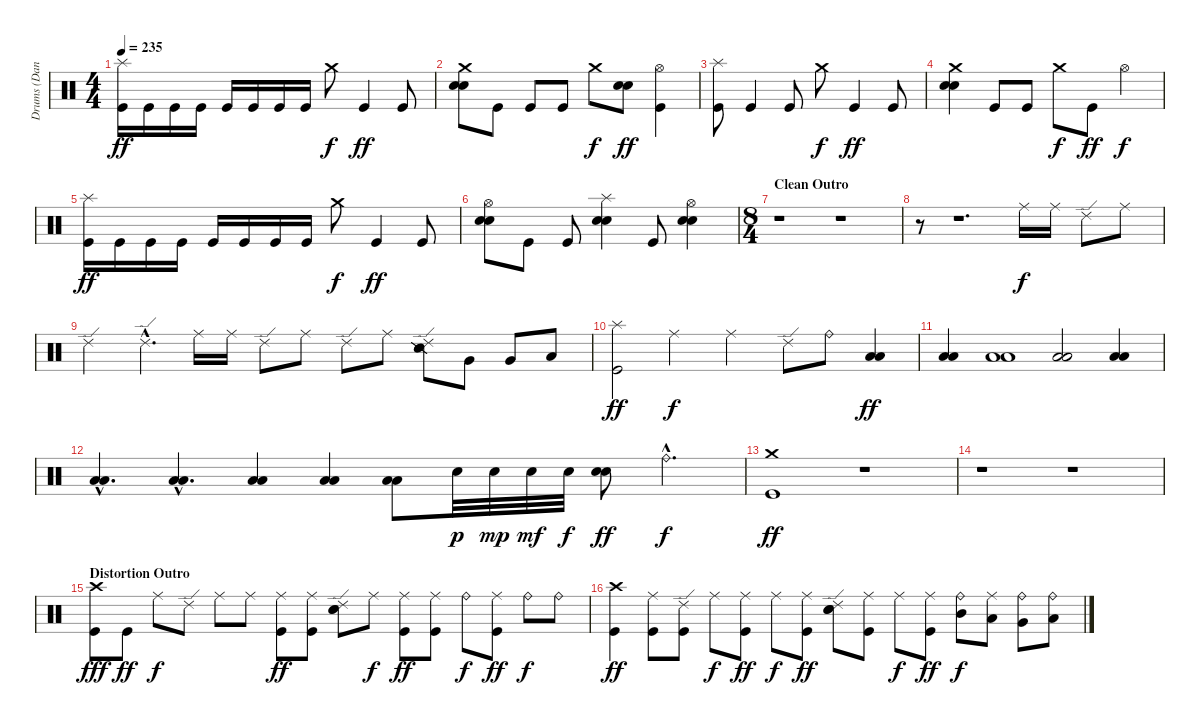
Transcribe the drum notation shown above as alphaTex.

\track ("Drums (Dan)" "Drums (Dan") {instrument percussion}
\staff {score}
\articulation defaults
\ts (4 4)
\tempo 235
\clef neutral
\ks c
("Kick (hit)" "Splash (hit)").16{dy ff} "Kick (hit)".16 "Kick (hit)".16 "Kick (hit)".16 "Kick (hit)".16 "Kick (hit)".16 "Kick (hit)".16 "Kick (hit)".16 "Crash medium (hit)".8{dy f} "Kick (hit)".4{dy ff} "Kick (hit)".8 |
("Electric Snare (hit)" "Electric Snare (hit)" "Crash medium (hit)").8 "Kick (hit)".8 "Kick (hit)".8 "Kick (hit)".8 "Crash medium (hit)".8{dy f} ("Electric Snare (hit)" "Electric Snare (hit)").8{dy ff} ("Kick (hit)" "Hi-Hat (open)").4 |
("Kick (hit)" "Splash (hit)").8 "Kick (hit)".4 "Kick (hit)".8 "Crash medium (hit)".8{dy f} "Kick (hit)".4{dy ff} "Kick (hit)".8 |
("Electric Snare (hit)" "Electric Snare (hit)" "Crash medium (hit)").4 "Kick (hit)".8 "Kick (hit)".8 "Crash medium (hit)".8{dy f} "Kick (hit)".8{dy ff} "Hi-Hat (open)".4{dy f} |
("Kick (hit)" "Splash (hit)").16{dy ff} "Kick (hit)".16 "Kick (hit)".16 "Kick (hit)".16 "Kick (hit)".16 "Kick (hit)".16 "Kick (hit)".16 "Kick (hit)".16 "Crash medium (hit)".8{dy f} "Kick (hit)".4{dy ff} "Kick (hit)".8 |
("Electric Snare (hit)" "Electric Snare (hit)" "Hi-Hat (open)").8 "Kick (hit)".8 "Kick (hit)".8 ("Electric Snare (hit)" "Electric Snare (hit)" "Splash (hit)").4 "Kick (hit)".8 ("Electric Snare (hit)" "Electric Snare (hit)" "Hi-Hat (open)").4 |
\ts (8 4)
\section ("" "Clean Outro")
r.1 r.1 |
r.8 r.1{d} "Ride (middle)".16{dy f} "Ride (middle)".16 "Ride (edge) 2".8 "Ride (middle)".8 |
"Ride (edge) 2".2 "Ride (edge) 2"{hac}.4{d} "Ride (middle)".16 "Ride (middle)".16 "Ride (edge) 2".8 "Ride (middle)".8 "Ride (edge) 2".8 "Ride (middle)".8 ("Snare (side stick) 2" "Snare (side stick) 2" "Ride (edge) 2").8 "Very Low Tom (hit)".8 "Very Low Tom (hit)".8 "Low Floor Tom (hit)".8 |
("Kick (hit)" "Splash (hit)").2{dy ff} "Ride (middle)".2{dy f} "Ride (middle)".2 "Ride (edge) 2".8 "Ride (bell)".8 ("Low Floor Tom (hit)" "Low Floor Tom (hit)").4{dy ff} |
("Low Floor Tom (hit)" "Low Floor Tom (hit)").4 ("Low Floor Tom (hit)" "Low Floor Tom (hit)").1 ("Low Floor Tom (hit)" "Low Floor Tom (hit)").2 ("Low Floor Tom (hit)" "Low Floor Tom (hit)").4 |
("Low Floor Tom (hit)"{hac} "Low Floor Tom (hit)"{hac}).4{d} ("Low Floor Tom (hit)"{hac} "Low Floor Tom (hit)"{hac}).4{d} ("Low Floor Tom (hit)" "Low Floor Tom (hit)").4 ("Low Floor Tom (hit)" "Low Floor Tom (hit)").4 ("Low Floor Tom (hit)" "Low Floor Tom (hit)").8 "Electric Snare (hit)".32{dy p} "Electric Snare (hit)".32{dy mp} "Electric Snare (hit)".32{dy mf} "Electric Snare (hit)".32{dy f} ("Electric Snare (hit)" "Electric Snare (hit)").8{dy ff} "Ride (bell)"{hac}.4{d dy f} |
("Kick (hit)" "Crash medium (hit)").1{dy ff} r.1 |
r.1 r.1 |
\section ("" "Distortion Outro")
("Kick (hit)" "Crash high (hit)").8{dy fff} "Kick (hit)".8{dy ff} "Ride (middle)".8{dy f} "Ride (edge) 2".8 "Ride (middle)".8 "Ride (middle)".8 ("Kick (hit)" "Ride (middle)").8{dy ff} ("Kick (hit)" "Ride (middle)").8 ("Electric Snare (hit)" "Electric Snare (hit)" "Ride (edge) 2").8 "Ride (middle)".8{dy f} ("Kick (hit)" "Ride (middle)").8{dy ff} ("Kick (hit)" "Ride (middle)").8 "Ride (bell)".8{dy f} ("Kick (hit)" "Ride (middle)").8{dy ff} "Ride (bell)".8{dy f} "Ride (bell)".8 |
("Kick (hit)" "Crash high (hit)").4{dy ff} ("Kick (hit)" "Ride (middle)").8 ("Kick (hit)" "Ride (edge) 2").8 "Ride (middle)".8{dy f} ("Kick (hit)" "Ride (middle)").8{dy ff} "Ride (middle)".8{dy f} ("Kick (hit)" "Ride (middle)").8{dy ff} ("Electric Snare (hit)" "Electric Snare (hit)" "Ride (edge) 2").8 ("Kick (hit)" "Ride (middle)").8 "Ride (middle)".8{dy f} ("Kick (hit)" "Ride (middle)").8{dy ff} ("Mid Tom (hit)" "Ride (bell)").8{dy f} ("Low Tom (hit)" "Ride (middle)").8 ("Very Low Tom (hit)" "Ride (bell)").8 ("Low Floor Tom (hit)" "Ride (bell)").8
